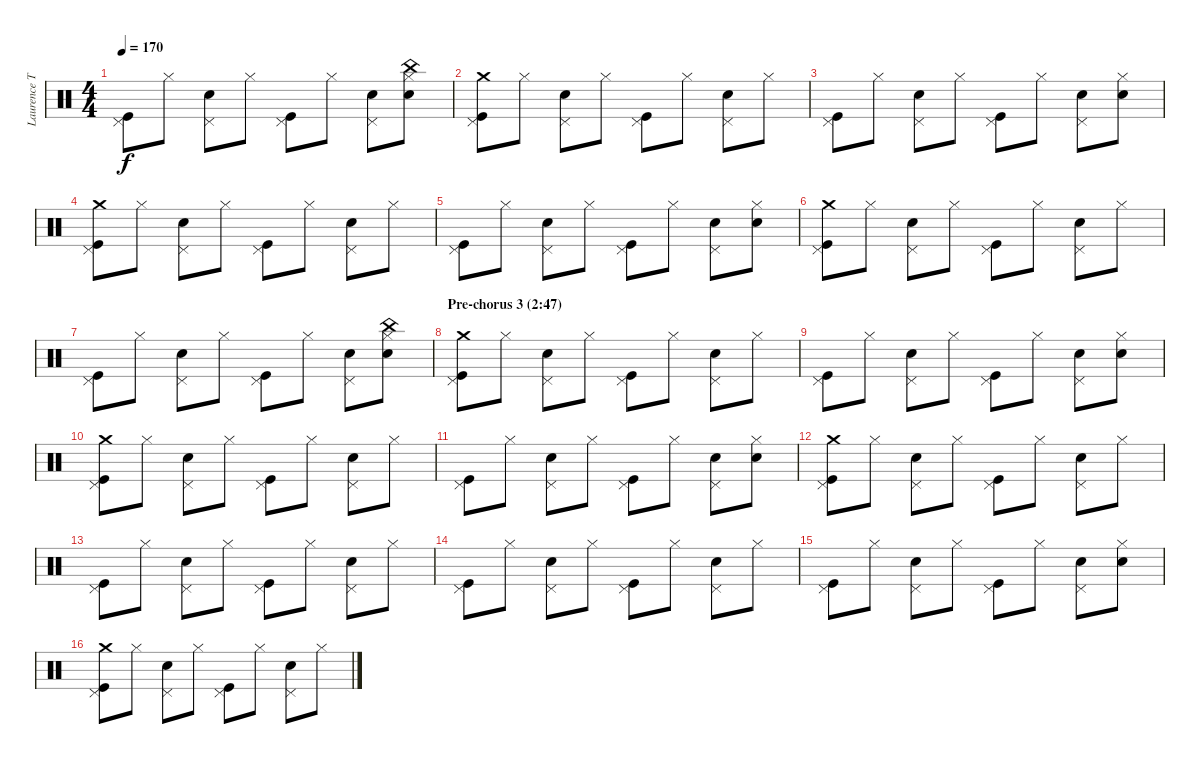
\track ("Laurence Tolhurst (drums)" "Laurence T") {instrument percussion}
\staff {score}
\articulation defaults
\ts (4 4)
\tempo 170
\clef neutral
\ks c
("Pedal Hi-Hat (hit)" "Kick (hit)").8{dy f} "Hi-Hat (closed)".8 ("Pedal Hi-Hat (hit)" "Snare (hit) 2").8 "Hi-Hat (closed)".8 ("Pedal Hi-Hat (hit)" "Kick (hit)").8 "Hi-Hat (closed)".8 ("Pedal Hi-Hat (hit)" "Snare (hit) 2").8 ("China (hit)" "Hi-Hat (closed)" "Snare (hit) 2").8 |
("Crash medium (hit)" "Pedal Hi-Hat (hit)" "Kick (hit)").8 "Hi-Hat (closed)".8 ("Pedal Hi-Hat (hit)" "Snare (hit) 2").8 "Hi-Hat (closed)".8 ("Pedal Hi-Hat (hit)" "Kick (hit)").8 "Hi-Hat (closed)".8 ("Pedal Hi-Hat (hit)" "Snare (hit) 2").8 "Hi-Hat (closed)".8 |
("Pedal Hi-Hat (hit)" "Kick (hit)").8 "Hi-Hat (closed)".8 ("Pedal Hi-Hat (hit)" "Snare (hit) 2").8 "Hi-Hat (closed)".8 ("Pedal Hi-Hat (hit)" "Kick (hit)").8 "Hi-Hat (closed)".8 ("Pedal Hi-Hat (hit)" "Snare (hit) 2").8 ("Hi-Hat (closed)" "Snare (hit) 2").8 |
("Crash medium (hit)" "Pedal Hi-Hat (hit)" "Kick (hit)").8 "Hi-Hat (closed)".8 ("Pedal Hi-Hat (hit)" "Snare (hit) 2").8 "Hi-Hat (closed)".8 ("Pedal Hi-Hat (hit)" "Kick (hit)").8 "Hi-Hat (closed)".8 ("Pedal Hi-Hat (hit)" "Snare (hit) 2").8 "Hi-Hat (closed)".8 |
("Pedal Hi-Hat (hit)" "Kick (hit)").8 "Hi-Hat (closed)".8 ("Pedal Hi-Hat (hit)" "Snare (hit) 2").8 "Hi-Hat (closed)".8 ("Pedal Hi-Hat (hit)" "Kick (hit)").8 "Hi-Hat (closed)".8 ("Pedal Hi-Hat (hit)" "Snare (hit) 2").8 ("Hi-Hat (closed)" "Snare (hit) 2").8 |
("Crash medium (hit)" "Pedal Hi-Hat (hit)" "Kick (hit)").8 "Hi-Hat (closed)".8 ("Pedal Hi-Hat (hit)" "Snare (hit) 2").8 "Hi-Hat (closed)".8 ("Pedal Hi-Hat (hit)" "Kick (hit)").8 "Hi-Hat (closed)".8 ("Pedal Hi-Hat (hit)" "Snare (hit) 2").8 "Hi-Hat (closed)".8 |
("Pedal Hi-Hat (hit)" "Kick (hit)").8 "Hi-Hat (closed)".8 ("Pedal Hi-Hat (hit)" "Snare (hit) 2").8 "Hi-Hat (closed)".8 ("Pedal Hi-Hat (hit)" "Kick (hit)").8 "Hi-Hat (closed)".8 ("Pedal Hi-Hat (hit)" "Snare (hit) 2").8 ("China (hit)" "Hi-Hat (closed)" "Snare (hit) 2").8 |
\section ("" "Pre-chorus 3 (2:47)")
("Crash medium (hit)" "Pedal Hi-Hat (hit)" "Kick (hit)").8 "Hi-Hat (closed)".8 ("Pedal Hi-Hat (hit)" "Snare (hit) 2").8 "Hi-Hat (closed)".8 ("Pedal Hi-Hat (hit)" "Kick (hit)").8 "Hi-Hat (closed)".8 ("Pedal Hi-Hat (hit)" "Snare (hit) 2").8 "Hi-Hat (closed)".8 |
("Pedal Hi-Hat (hit)" "Kick (hit)").8 "Hi-Hat (closed)".8 ("Pedal Hi-Hat (hit)" "Snare (hit) 2").8 "Hi-Hat (closed)".8 ("Pedal Hi-Hat (hit)" "Kick (hit)").8 "Hi-Hat (closed)".8 ("Pedal Hi-Hat (hit)" "Snare (hit) 2").8 ("Hi-Hat (closed)" "Snare (hit) 2").8 |
("Crash medium (hit)" "Pedal Hi-Hat (hit)" "Kick (hit)").8 "Hi-Hat (closed)".8 ("Pedal Hi-Hat (hit)" "Snare (hit) 2").8 "Hi-Hat (closed)".8 ("Pedal Hi-Hat (hit)" "Kick (hit)").8 "Hi-Hat (closed)".8 ("Pedal Hi-Hat (hit)" "Snare (hit) 2").8 "Hi-Hat (closed)".8 |
("Pedal Hi-Hat (hit)" "Kick (hit)").8 "Hi-Hat (closed)".8 ("Pedal Hi-Hat (hit)" "Snare (hit) 2").8 "Hi-Hat (closed)".8 ("Pedal Hi-Hat (hit)" "Kick (hit)").8 "Hi-Hat (closed)".8 ("Pedal Hi-Hat (hit)" "Snare (hit) 2").8 ("Hi-Hat (closed)" "Snare (hit) 2").8 |
("Crash medium (hit)" "Pedal Hi-Hat (hit)" "Kick (hit)").8 "Hi-Hat (closed)".8 ("Pedal Hi-Hat (hit)" "Snare (hit) 2").8 "Hi-Hat (closed)".8 ("Pedal Hi-Hat (hit)" "Kick (hit)").8 "Hi-Hat (closed)".8 ("Pedal Hi-Hat (hit)" "Snare (hit) 2").8 "Hi-Hat (closed)".8 |
("Pedal Hi-Hat (hit)" "Kick (hit)").8 "Hi-Hat (closed)".8 ("Pedal Hi-Hat (hit)" "Snare (hit) 2").8 "Hi-Hat (closed)".8 ("Pedal Hi-Hat (hit)" "Kick (hit)").8 "Hi-Hat (closed)".8 ("Pedal Hi-Hat (hit)" "Snare (hit) 2").8 "Hi-Hat (closed)".8 |
("Pedal Hi-Hat (hit)" "Kick (hit)").8 "Hi-Hat (closed)".8 ("Pedal Hi-Hat (hit)" "Snare (hit) 2").8 "Hi-Hat (closed)".8 ("Pedal Hi-Hat (hit)" "Kick (hit)").8 "Hi-Hat (closed)".8 ("Pedal Hi-Hat (hit)" "Snare (hit) 2").8 "Hi-Hat (closed)".8 |
("Pedal Hi-Hat (hit)" "Kick (hit)").8 "Hi-Hat (closed)".8 ("Pedal Hi-Hat (hit)" "Snare (hit) 2").8 "Hi-Hat (closed)".8 ("Pedal Hi-Hat (hit)" "Kick (hit)").8 "Hi-Hat (closed)".8 ("Pedal Hi-Hat (hit)" "Snare (hit) 2").8 ("Hi-Hat (closed)" "Snare (hit) 2").8 |
("Crash medium (hit)" "Pedal Hi-Hat (hit)" "Kick (hit)").8 "Hi-Hat (closed)".8 ("Pedal Hi-Hat (hit)" "Snare (hit) 2").8 "Hi-Hat (closed)".8 ("Pedal Hi-Hat (hit)" "Kick (hit)").8 "Hi-Hat (closed)".8 ("Pedal Hi-Hat (hit)" "Snare (hit) 2").8 "Hi-Hat (closed)".8
